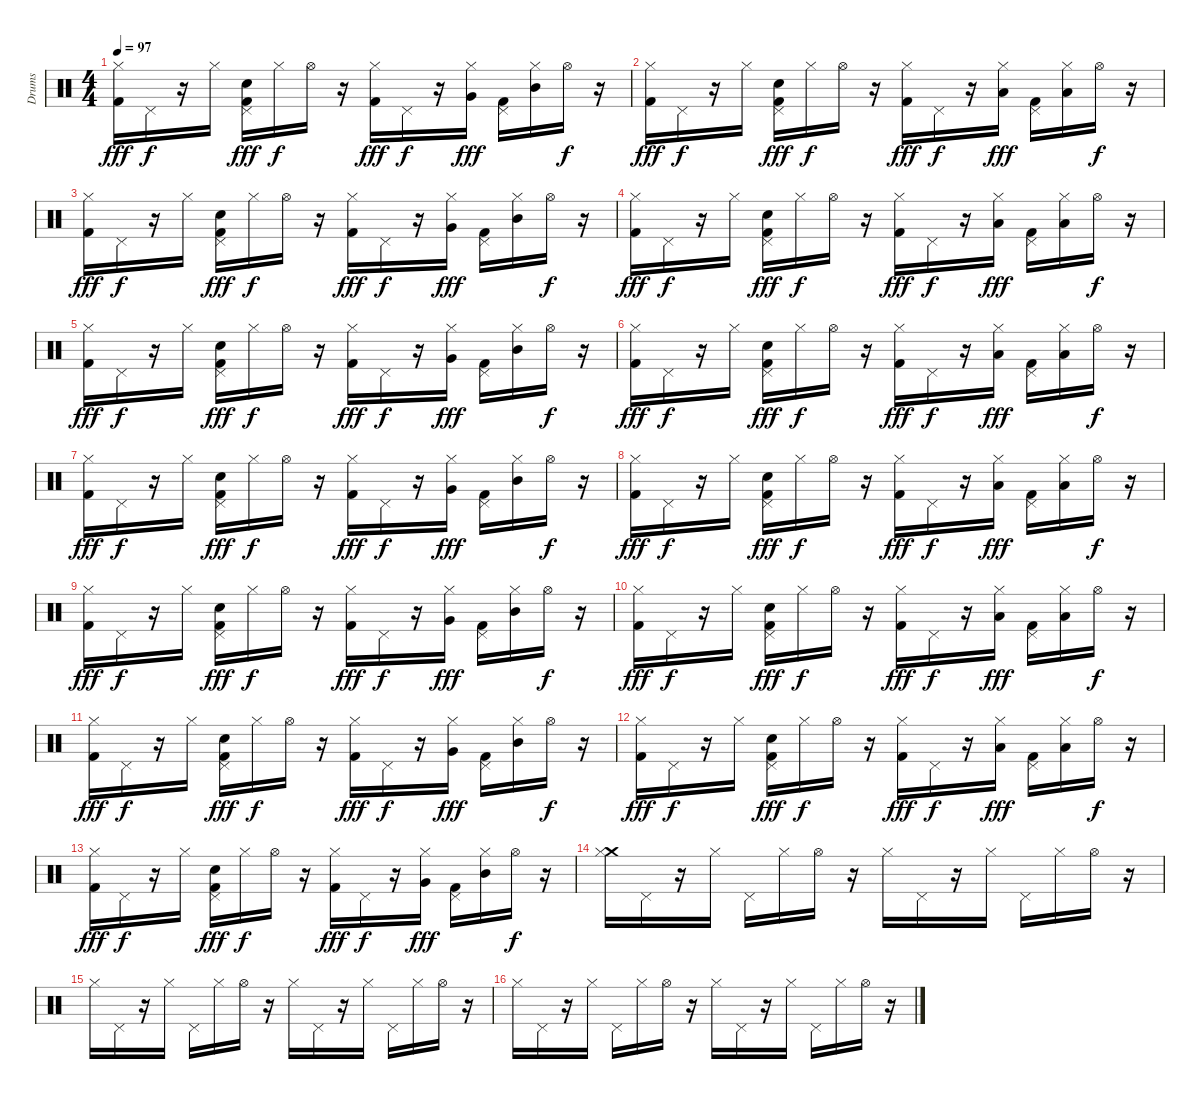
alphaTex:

\track ("Drums" "Drums") {instrument percussion}
\staff {score}
\articulation defaults
\ts (4 4)
\tempo 97
\clef neutral
\ks c
("Kick (hit) 2" "Hi-Hat (closed)").16{dy fff} "Pedal Hi-Hat (hit)".16{dy f} r.16 "Hi-Hat (closed)".16 ("Electric Snare (hit)" "Pedal Hi-Hat (hit)" "Kick (hit) 2").16{dy fff} "Hi-Hat (closed)".16{dy f} "Hi-Hat (open)".16 r.16 ("Kick (hit) 2" "Hi-Hat (closed)").16{dy fff} "Pedal Hi-Hat (hit)".16{dy f} r.16 ("Very Low Tom (hit)" "Hi-Hat (closed)").16{dy fff} ("Pedal Hi-Hat (hit)" "Kick (hit) 2").16 ("Mid Tom (hit)" "Hi-Hat (closed)").16 "Hi-Hat (open)".16{dy f} r.16 |
("Hi-Hat (closed)" "Kick (hit) 2").16{dy fff} "Pedal Hi-Hat (hit)".16{dy f} r.16 "Hi-Hat (closed)".16 ("Snare (hit) 2" "Kick (hit) 2" "Pedal Hi-Hat (hit)").16{dy fff} "Hi-Hat (closed)".16{dy f} "Hi-Hat (open)".16 r.16 ("Hi-Hat (closed)" "Kick (hit) 2").16{dy fff} "Pedal Hi-Hat (hit)".16{dy f} r.16 ("Low Tom (hit)" "Hi-Hat (closed)").16{dy fff} ("Kick (hit) 2" "Pedal Hi-Hat (hit)").16 ("Low Floor Tom (hit)" "Hi-Hat (closed)").16 "Hi-Hat (open)".16{dy f} r.16 |
("Kick (hit) 2" "Hi-Hat (closed)").16{dy fff} "Pedal Hi-Hat (hit)".16{dy f} r.16 "Hi-Hat (closed)".16 ("Electric Snare (hit)" "Pedal Hi-Hat (hit)" "Kick (hit) 2").16{dy fff} "Hi-Hat (closed)".16{dy f} "Hi-Hat (open)".16 r.16 ("Kick (hit) 2" "Hi-Hat (closed)").16{dy fff} "Pedal Hi-Hat (hit)".16{dy f} r.16 ("Very Low Tom (hit)" "Hi-Hat (closed)").16{dy fff} ("Pedal Hi-Hat (hit)" "Kick (hit) 2").16 ("Mid Tom (hit)" "Hi-Hat (closed)").16 "Hi-Hat (open)".16{dy f} r.16 |
("Hi-Hat (closed)" "Kick (hit) 2").16{dy fff} "Pedal Hi-Hat (hit)".16{dy f} r.16 "Hi-Hat (closed)".16 ("Snare (hit) 2" "Kick (hit) 2" "Pedal Hi-Hat (hit)").16{dy fff} "Hi-Hat (closed)".16{dy f} "Hi-Hat (open)".16 r.16 ("Hi-Hat (closed)" "Kick (hit) 2").16{dy fff} "Pedal Hi-Hat (hit)".16{dy f} r.16 ("Low Tom (hit)" "Hi-Hat (closed)").16{dy fff} ("Kick (hit) 2" "Pedal Hi-Hat (hit)").16 ("Low Floor Tom (hit)" "Hi-Hat (closed)").16 "Hi-Hat (open)".16{dy f} r.16 |
("Kick (hit) 2" "Hi-Hat (closed)").16{dy fff} "Pedal Hi-Hat (hit)".16{dy f} r.16 "Hi-Hat (closed)".16 ("Electric Snare (hit)" "Pedal Hi-Hat (hit)" "Kick (hit) 2").16{dy fff} "Hi-Hat (closed)".16{dy f} "Hi-Hat (open)".16 r.16 ("Kick (hit) 2" "Hi-Hat (closed)").16{dy fff} "Pedal Hi-Hat (hit)".16{dy f} r.16 ("Very Low Tom (hit)" "Hi-Hat (closed)").16{dy fff} ("Pedal Hi-Hat (hit)" "Kick (hit) 2").16 ("Mid Tom (hit)" "Hi-Hat (closed)").16 "Hi-Hat (open)".16{dy f} r.16 |
("Hi-Hat (closed)" "Kick (hit) 2").16{dy fff} "Pedal Hi-Hat (hit)".16{dy f} r.16 "Hi-Hat (closed)".16 ("Snare (hit) 2" "Kick (hit) 2" "Pedal Hi-Hat (hit)").16{dy fff} "Hi-Hat (closed)".16{dy f} "Hi-Hat (open)".16 r.16 ("Hi-Hat (closed)" "Kick (hit) 2").16{dy fff} "Pedal Hi-Hat (hit)".16{dy f} r.16 ("Low Tom (hit)" "Hi-Hat (closed)").16{dy fff} ("Kick (hit) 2" "Pedal Hi-Hat (hit)").16 ("Low Floor Tom (hit)" "Hi-Hat (closed)").16 "Hi-Hat (open)".16{dy f} r.16 |
("Kick (hit) 2" "Hi-Hat (closed)").16{dy fff} "Pedal Hi-Hat (hit)".16{dy f} r.16 "Hi-Hat (closed)".16 ("Electric Snare (hit)" "Pedal Hi-Hat (hit)" "Kick (hit) 2").16{dy fff} "Hi-Hat (closed)".16{dy f} "Hi-Hat (open)".16 r.16 ("Kick (hit) 2" "Hi-Hat (closed)").16{dy fff} "Pedal Hi-Hat (hit)".16{dy f} r.16 ("Very Low Tom (hit)" "Hi-Hat (closed)").16{dy fff} ("Pedal Hi-Hat (hit)" "Kick (hit) 2").16 ("Mid Tom (hit)" "Hi-Hat (closed)").16 "Hi-Hat (open)".16{dy f} r.16 |
("Hi-Hat (closed)" "Kick (hit) 2").16{dy fff} "Pedal Hi-Hat (hit)".16{dy f} r.16 "Hi-Hat (closed)".16 ("Snare (hit) 2" "Kick (hit) 2" "Pedal Hi-Hat (hit)").16{dy fff} "Hi-Hat (closed)".16{dy f} "Hi-Hat (open)".16 r.16 ("Hi-Hat (closed)" "Kick (hit) 2").16{dy fff} "Pedal Hi-Hat (hit)".16{dy f} r.16 ("Low Tom (hit)" "Hi-Hat (closed)").16{dy fff} ("Kick (hit) 2" "Pedal Hi-Hat (hit)").16 ("Low Floor Tom (hit)" "Hi-Hat (closed)").16 "Hi-Hat (open)".16{dy f} r.16 |
("Kick (hit) 2" "Hi-Hat (closed)").16{dy fff} "Pedal Hi-Hat (hit)".16{dy f} r.16 "Hi-Hat (closed)".16 ("Electric Snare (hit)" "Pedal Hi-Hat (hit)" "Kick (hit) 2").16{dy fff} "Hi-Hat (closed)".16{dy f} "Hi-Hat (open)".16 r.16 ("Kick (hit) 2" "Hi-Hat (closed)").16{dy fff} "Pedal Hi-Hat (hit)".16{dy f} r.16 ("Very Low Tom (hit)" "Hi-Hat (closed)").16{dy fff} ("Pedal Hi-Hat (hit)" "Kick (hit) 2").16 ("Mid Tom (hit)" "Hi-Hat (closed)").16 "Hi-Hat (open)".16{dy f} r.16 |
("Hi-Hat (closed)" "Kick (hit) 2").16{dy fff} "Pedal Hi-Hat (hit)".16{dy f} r.16 "Hi-Hat (closed)".16 ("Snare (hit) 2" "Kick (hit) 2" "Pedal Hi-Hat (hit)").16{dy fff} "Hi-Hat (closed)".16{dy f} "Hi-Hat (open)".16 r.16 ("Hi-Hat (closed)" "Kick (hit) 2").16{dy fff} "Pedal Hi-Hat (hit)".16{dy f} r.16 ("Low Tom (hit)" "Hi-Hat (closed)").16{dy fff} ("Kick (hit) 2" "Pedal Hi-Hat (hit)").16 ("Low Floor Tom (hit)" "Hi-Hat (closed)").16 "Hi-Hat (open)".16{dy f} r.16 |
("Kick (hit) 2" "Hi-Hat (closed)").16{dy fff} "Pedal Hi-Hat (hit)".16{dy f} r.16 "Hi-Hat (closed)".16 ("Electric Snare (hit)" "Pedal Hi-Hat (hit)" "Kick (hit) 2").16{dy fff} "Hi-Hat (closed)".16{dy f} "Hi-Hat (open)".16 r.16 ("Kick (hit) 2" "Hi-Hat (closed)").16{dy fff} "Pedal Hi-Hat (hit)".16{dy f} r.16 ("Very Low Tom (hit)" "Hi-Hat (closed)").16{dy fff} ("Pedal Hi-Hat (hit)" "Kick (hit) 2").16 ("Mid Tom (hit)" "Hi-Hat (closed)").16 "Hi-Hat (open)".16{dy f} r.16 |
("Hi-Hat (closed)" "Kick (hit) 2").16{dy fff} "Pedal Hi-Hat (hit)".16{dy f} r.16 "Hi-Hat (closed)".16 ("Snare (hit) 2" "Kick (hit) 2" "Pedal Hi-Hat (hit)").16{dy fff} "Hi-Hat (closed)".16{dy f} "Hi-Hat (open)".16 r.16 ("Kick (hit) 2" "Hi-Hat (closed)").16{dy fff} "Pedal Hi-Hat (hit)".16{dy f} r.16 ("Hi-Hat (closed)" "Low Tom (hit)").16{dy fff} ("Pedal Hi-Hat (hit)" "Kick (hit) 2").16 ("Low Floor Tom (hit)" "Hi-Hat (closed)").16 "Hi-Hat (open)".16{dy f} r.16 |
("Kick (hit) 2" "Hi-Hat (closed)").16{dy fff} "Pedal Hi-Hat (hit)".16{dy f} r.16 "Hi-Hat (closed)".16 ("Electric Snare (hit)" "Pedal Hi-Hat (hit)" "Kick (hit) 2").16{dy fff} "Hi-Hat (closed)".16{dy f} "Hi-Hat (open)".16 r.16 ("Kick (hit) 2" "Hi-Hat (closed)").16{dy fff} "Pedal Hi-Hat (hit)".16{dy f} r.16 ("Hi-Hat (closed)" "Very Low Tom (hit)").16{dy fff} ("Pedal Hi-Hat (hit)" "Kick (hit) 2").16 ("Mid Tom (hit)" "Hi-Hat (closed)").16 "Hi-Hat (open)".16{dy f} r.16 |
("Crash medium (hit)" "Hi-Hat (closed)").16 "Pedal Hi-Hat (hit)".16 r.16 "Hi-Hat (closed)".16 "Pedal Hi-Hat (hit)".16 "Hi-Hat (closed)".16 "Hi-Hat (open)".16 r.16 "Hi-Hat (closed)".16 "Pedal Hi-Hat (hit)".16 r.16 "Hi-Hat (closed)".16 "Pedal Hi-Hat (hit)".16 "Hi-Hat (closed)".16 "Hi-Hat (open)".16 r.16 |
"Hi-Hat (closed)".16 "Pedal Hi-Hat (hit)".16 r.16 "Hi-Hat (closed)".16 "Pedal Hi-Hat (hit)".16 "Hi-Hat (closed)".16 "Hi-Hat (open)".16 r.16 "Hi-Hat (closed)".16 "Pedal Hi-Hat (hit)".16 r.16 "Hi-Hat (closed)".16 "Pedal Hi-Hat (hit)".16 "Hi-Hat (closed)".16 "Hi-Hat (open)".16 r.16 |
"Hi-Hat (closed)".16 "Pedal Hi-Hat (hit)".16 r.16 "Hi-Hat (closed)".16 "Pedal Hi-Hat (hit)".16 "Hi-Hat (closed)".16 "Hi-Hat (open)".16 r.16 "Hi-Hat (closed)".16 "Pedal Hi-Hat (hit)".16 r.16 "Hi-Hat (closed)".16 "Pedal Hi-Hat (hit)".16 "Hi-Hat (closed)".16 "Hi-Hat (open)".16 r.16
